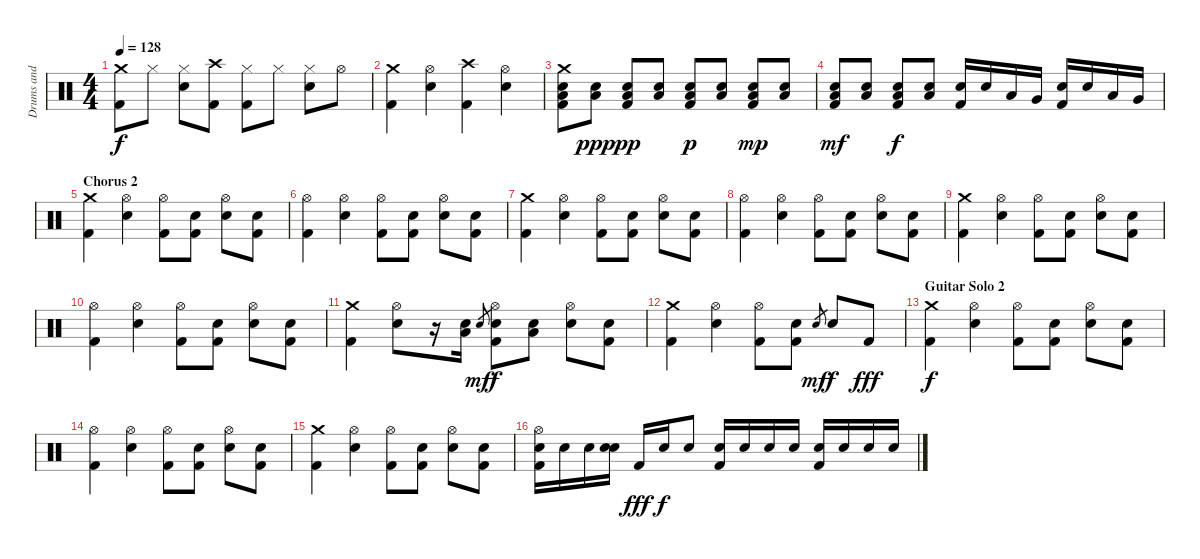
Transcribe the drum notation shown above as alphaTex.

\track ("Drums and Percussion" "Drums and ") {instrument percussion}
\staff {score}
\articulation defaults
\ts (4 4)
\tempo 128
\clef neutral
\ks c
("Crash medium (hit)" "Kick (hit) 2").8{dy f} "Hi-Hat (closed)".8 ("Hi-Hat (closed)" "Snare (hit) 2").8 ("Crash high (hit)" "Kick (hit) 2").8 ("Hi-Hat (closed)" "Kick (hit) 2").8 "Hi-Hat (closed)".8 ("Hi-Hat (closed)" "Snare (hit) 2").8 "Hi-Hat (open)".8 |
("Crash medium (hit)" "Kick (hit) 2").4 ("Hi-Hat (open)" "Snare (hit) 2").4 ("Crash high (hit)" "Kick (hit) 2").4 ("Hi-Hat (open)" "Snare (hit) 2").4 |
("Crash medium (hit)" "Snare (hit) 2" "Low Floor Tom (hit)" "Kick (hit) 2").8 ("Snare (hit) 2" "Low Floor Tom (hit)").8{dy ppp} ("Snare (hit) 2" "Low Floor Tom (hit)" "Kick (hit) 2").8{dy pp} ("Snare (hit) 2" "Low Floor Tom (hit)").8 ("Snare (hit) 2" "Low Floor Tom (hit)" "Kick (hit) 2").8{dy p} ("Snare (hit) 2" "Low Floor Tom (hit)").8 ("Snare (hit) 2" "Low Floor Tom (hit)" "Kick (hit) 2").8{dy mp} ("Snare (hit) 2" "Low Floor Tom (hit)").8 |
("Snare (hit) 2" "Low Floor Tom (hit)" "Kick (hit) 2").8{dy mf} ("Snare (hit) 2" "Low Floor Tom (hit)").8 ("Snare (hit) 2" "Low Floor Tom (hit)" "Kick (hit) 2").8{dy f} ("Snare (hit) 2" "Low Floor Tom (hit)").8 ("Snare (hit) 2" "Kick (hit) 2").16 "Snare (hit) 2".16 "Low Tom (hit)".16 "Very Low Tom (hit)".16 ("Snare (hit) 2" "Kick (hit) 2").16 "Snare (hit) 2".16 "Low Tom (hit)".16 "Very Low Tom (hit)".16 |
\section ("" "Chorus 2")
("Crash medium (hit)" "Kick (hit) 2").4 ("Hi-Hat (open)" "Snare (hit) 2").4 ("Hi-Hat (open)" "Kick (hit) 2").8 ("Snare (hit)" "Kick (hit) 2").8 ("Hi-Hat (open)" "Snare (hit) 2").8 ("Snare (hit)" "Kick (hit) 2").8 |
("Hi-Hat (open)" "Kick (hit) 2").4 ("Hi-Hat (open)" "Snare (hit) 2").4 ("Hi-Hat (open)" "Kick (hit) 2").8 ("Snare (hit)" "Kick (hit) 2").8 ("Hi-Hat (open)" "Snare (hit) 2").8 ("Snare (hit)" "Kick (hit) 2").8 |
("Crash medium (hit)" "Kick (hit) 2").4 ("Hi-Hat (open)" "Snare (hit) 2").4 ("Hi-Hat (open)" "Kick (hit) 2").8 ("Snare (hit)" "Kick (hit) 2").8 ("Hi-Hat (open)" "Snare (hit) 2").8 ("Snare (hit)" "Kick (hit) 2").8 |
("Hi-Hat (open)" "Kick (hit) 2").4 ("Hi-Hat (open)" "Snare (hit) 2").4 ("Hi-Hat (open)" "Kick (hit) 2").8 ("Snare (hit)" "Kick (hit) 2").8 ("Hi-Hat (open)" "Snare (hit) 2").8 ("Snare (hit)" "Kick (hit) 2").8 |
("Crash medium (hit)" "Kick (hit) 2").4 ("Hi-Hat (open)" "Snare (hit) 2").4 ("Hi-Hat (open)" "Kick (hit) 2").8 ("Snare (hit)" "Kick (hit) 2").8 ("Hi-Hat (open)" "Snare (hit) 2").8 ("Snare (hit)" "Kick (hit) 2").8 |
("Hi-Hat (open)" "Kick (hit) 2").4 ("Hi-Hat (open)" "Snare (hit) 2").4 ("Hi-Hat (open)" "Kick (hit) 2").8 ("Snare (hit)" "Kick (hit) 2").8 ("Hi-Hat (open)" "Snare (hit) 2").8 ("Snare (hit)" "Kick (hit) 2").8 |
("Crash medium (hit)" "Kick (hit) 2").4 ("Hi-Hat (open)" "Snare (hit) 2").8 r.16 ("Snare (hit)" "Low Tom (hit)").16 "Snare (hit)".8{gr dy mf} ("Hi-Hat (open)" "Snare (hit) 2" "Kick (hit) 2").8{dy f} ("Snare (hit)" "Low Tom (hit)").8 ("Hi-Hat (open)" "Snare (hit) 2").8 ("Snare (hit)" "Kick (hit) 2").8 |
("Crash medium (hit)" "Kick (hit) 2").4 ("Hi-Hat (open)" "Snare (hit) 2").4 ("Hi-Hat (open)" "Kick (hit) 2").8 ("Snare (hit)" "Kick (hit) 2").8 "Snare (hit)".8{gr dy mf} "Snare (hit) 2".8{dy f} "Kick (hit) 2".8{dy fff} |
\section ("" "Guitar Solo 2")
("Crash medium (hit)" "Kick (hit) 2").4{dy f} ("Hi-Hat (open)" "Snare (hit) 2").4 ("Hi-Hat (open)" "Kick (hit) 2").8 ("Snare (hit)" "Kick (hit) 2").8 ("Hi-Hat (open)" "Snare (hit) 2").8 ("Snare (hit)" "Kick (hit) 2").8 |
("Hi-Hat (open)" "Kick (hit) 2").4 ("Hi-Hat (open)" "Snare (hit) 2").4 ("Hi-Hat (open)" "Kick (hit) 2").8 ("Snare (hit)" "Kick (hit) 2").8 ("Hi-Hat (open)" "Snare (hit) 2").8 ("Snare (hit)" "Kick (hit) 2").8 |
("Crash medium (hit)" "Kick (hit) 2").4 ("Hi-Hat (open)" "Snare (hit) 2").4 ("Hi-Hat (open)" "Kick (hit) 2").8 ("Snare (hit)" "Kick (hit) 2").8 ("Hi-Hat (open)" "Snare (hit) 2").8 ("Snare (hit)" "Kick (hit) 2").8 |
("Hi-Hat (open)" "Snare (hit) 2" "Kick (hit) 2").16 "Snare (hit) 2".16 "Snare (hit) 2".16 ("Snare (hit)" "Snare (hit) 2").16 "Kick (hit) 2".16{dy fff} "Snare (hit) 2".16{dy f} "Snare (hit) 2".8 ("Snare (hit) 2" "Kick (hit) 2").16 "Snare (hit) 2".16 "Snare (hit) 2".16 "Snare (hit) 2".16 ("Snare (hit) 2" "Kick (hit) 2").16 "Snare (hit) 2".16 "Snare (hit) 2".16 "Snare (hit) 2".16
